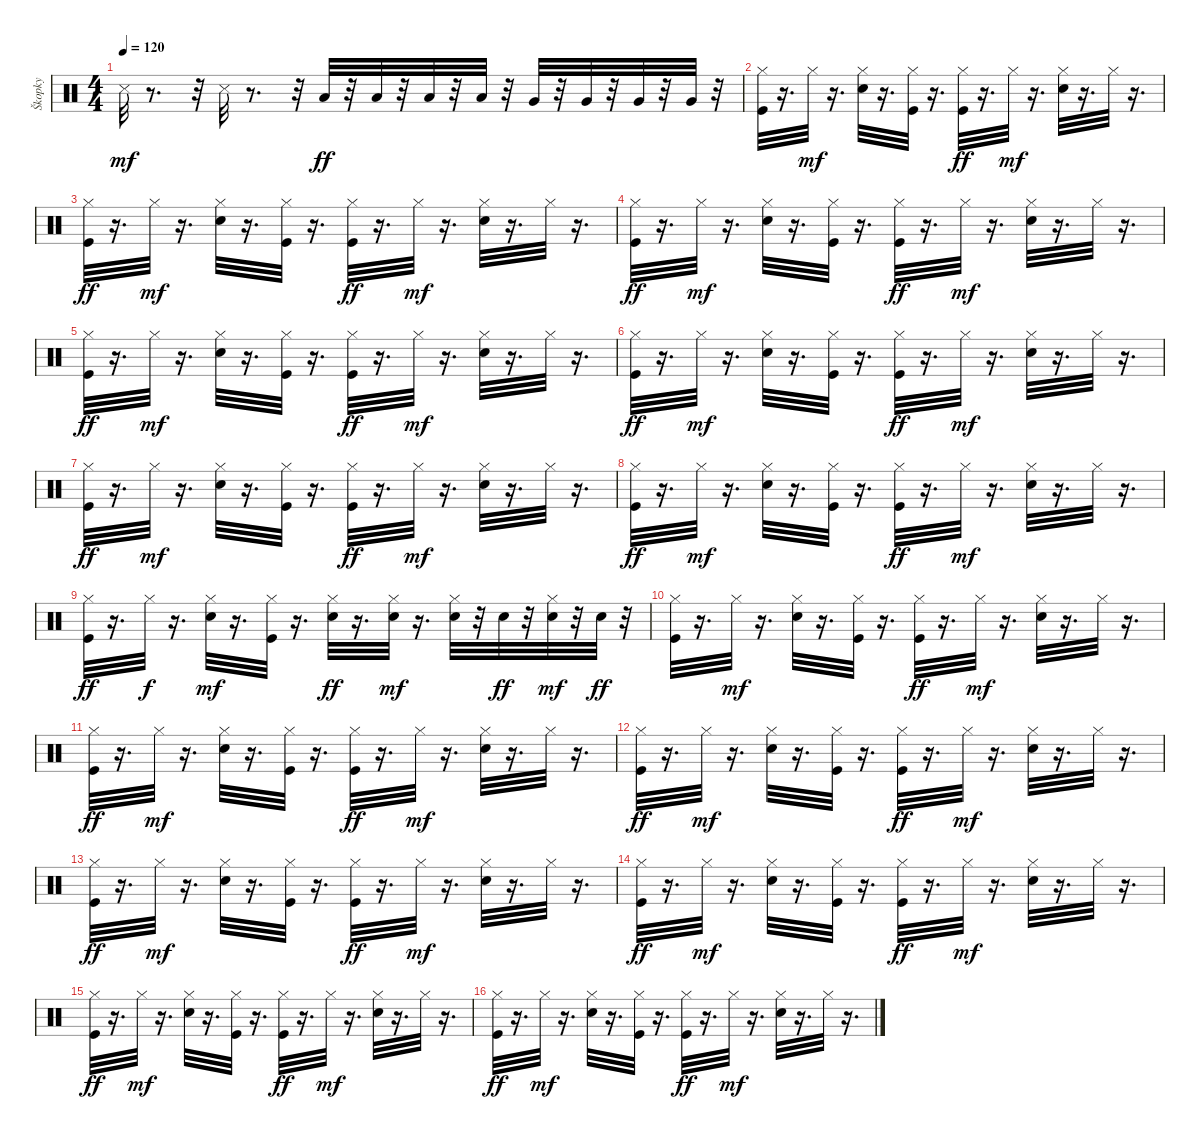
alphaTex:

\track ("Škopky" "Škopky") {instrument percussion}
\staff {score}
\articulation defaults
\ts (4 4)
\tempo 120
\clef neutral
\ks c "Snare (side stick) 3".32{dy mf}
r.8{d} r.32 "Snare (side stick) 3".32 r.8{d} r.32 "Low Tom (hit)".32{dy ff} r.32 "Low Tom (hit)".32 r.32 "Low Tom (hit)".32 r.32 "Low Tom (hit)".32 r.32 "Very Low Tom (hit)".32 r.32 "Very Low Tom (hit)".32 r.32 "Very Low Tom (hit)".32 r.32 "Very Low Tom (hit)".32 r.32 |
("Kick (hit)" "Hi-Hat (closed)").32 r.16{d} "Hi-Hat (closed)".32{dy mf} r.16{d} ("Snare (hit) 2" "Hi-Hat (closed)").32 r.16{d} ("Kick (hit)" "Hi-Hat (closed)").32 r.16{d} ("Kick (hit)" "Hi-Hat (closed)").32{dy ff} r.16{d} "Hi-Hat (closed)".32{dy mf} r.16{d} ("Snare (hit) 2" "Hi-Hat (closed)").32 r.16{d} "Hi-Hat (closed)".32 r.16{d} |
("Kick (hit)" "Hi-Hat (closed)").32{dy ff} r.16{d} "Hi-Hat (closed)".32{dy mf} r.16{d} ("Snare (hit) 2" "Hi-Hat (closed)").32 r.16{d} ("Kick (hit)" "Hi-Hat (closed)").32 r.16{d} ("Kick (hit)" "Hi-Hat (closed)").32{dy ff} r.16{d} "Hi-Hat (closed)".32{dy mf} r.16{d} ("Snare (hit) 2" "Hi-Hat (closed)").32 r.16{d} "Hi-Hat (closed)".32 r.16{d} |
("Kick (hit)" "Hi-Hat (closed)").32{dy ff} r.16{d} "Hi-Hat (closed)".32{dy mf} r.16{d} ("Snare (hit) 2" "Hi-Hat (closed)").32 r.16{d} ("Kick (hit)" "Hi-Hat (closed)").32 r.16{d} ("Kick (hit)" "Hi-Hat (closed)").32{dy ff} r.16{d} "Hi-Hat (closed)".32{dy mf} r.16{d} ("Snare (hit) 2" "Hi-Hat (closed)").32 r.16{d} "Hi-Hat (closed)".32 r.16{d} |
("Kick (hit)" "Hi-Hat (closed)").32{dy ff} r.16{d} "Hi-Hat (closed)".32{dy mf} r.16{d} ("Snare (hit) 2" "Hi-Hat (closed)").32 r.16{d} ("Kick (hit)" "Hi-Hat (closed)").32 r.16{d} ("Kick (hit)" "Hi-Hat (closed)").32{dy ff} r.16{d} "Hi-Hat (closed)".32{dy mf} r.16{d} ("Snare (hit) 2" "Hi-Hat (closed)").32 r.16{d} "Hi-Hat (closed)".32 r.16{d} |
("Kick (hit)" "Hi-Hat (closed)").32{dy ff} r.16{d} "Hi-Hat (closed)".32{dy mf} r.16{d} ("Snare (hit) 2" "Hi-Hat (closed)").32 r.16{d} ("Kick (hit)" "Hi-Hat (closed)").32 r.16{d} ("Kick (hit)" "Hi-Hat (closed)").32{dy ff} r.16{d} "Hi-Hat (closed)".32{dy mf} r.16{d} ("Snare (hit) 2" "Hi-Hat (closed)").32 r.16{d} "Hi-Hat (closed)".32 r.16{d} |
("Kick (hit)" "Hi-Hat (closed)").32{dy ff} r.16{d} "Hi-Hat (closed)".32{dy mf} r.16{d} ("Snare (hit) 2" "Hi-Hat (closed)").32 r.16{d} ("Kick (hit)" "Hi-Hat (closed)").32 r.16{d} ("Kick (hit)" "Hi-Hat (closed)").32{dy ff} r.16{d} "Hi-Hat (closed)".32{dy mf} r.16{d} ("Snare (hit) 2" "Hi-Hat (closed)").32 r.16{d} "Hi-Hat (closed)".32 r.16{d} |
("Kick (hit)" "Hi-Hat (closed)").32{dy ff} r.16{d} "Hi-Hat (closed)".32{dy mf} r.16{d} ("Snare (hit) 2" "Hi-Hat (closed)").32 r.16{d} ("Kick (hit)" "Hi-Hat (closed)").32 r.16{d} ("Kick (hit)" "Hi-Hat (closed)").32{dy ff} r.16{d} "Hi-Hat (closed)".32{dy mf} r.16{d} ("Snare (hit) 2" "Hi-Hat (closed)").32 r.16{d} "Hi-Hat (closed)".32 r.16{d} |
("Kick (hit)" "Hi-Hat (closed)").32{dy ff} r.16{d} "Hi-Hat (closed)".32{dy f} r.16{d} ("Snare (hit) 2" "Hi-Hat (closed)").32{dy mf} r.16{d} ("Kick (hit)" "Hi-Hat (closed)").32 r.16{d} ("Snare (hit) 2" "Hi-Hat (closed)").32{dy ff} r.16{d} ("Snare (hit) 2" "Hi-Hat (closed)").32{dy mf} r.16{d} ("Snare (hit) 2" "Hi-Hat (closed)").32 r.32 "Snare (hit) 2".32{dy ff} r.32 ("Snare (hit) 2" "Hi-Hat (closed)").32{dy mf} r.32 "Snare (hit) 2".32{dy ff} r.32 |
("Kick (hit)" "Hi-Hat (closed)").32 r.16{d} "Hi-Hat (closed)".32{dy mf} r.16{d} ("Snare (hit) 2" "Hi-Hat (closed)").32 r.16{d} ("Kick (hit)" "Hi-Hat (closed)").32 r.16{d} ("Kick (hit)" "Hi-Hat (closed)").32{dy ff} r.16{d} "Hi-Hat (closed)".32{dy mf} r.16{d} ("Snare (hit) 2" "Hi-Hat (closed)").32 r.16{d} "Hi-Hat (closed)".32 r.16{d} |
("Kick (hit)" "Hi-Hat (closed)").32{dy ff} r.16{d} "Hi-Hat (closed)".32{dy mf} r.16{d} ("Snare (hit) 2" "Hi-Hat (closed)").32 r.16{d} ("Kick (hit)" "Hi-Hat (closed)").32 r.16{d} ("Kick (hit)" "Hi-Hat (closed)").32{dy ff} r.16{d} "Hi-Hat (closed)".32{dy mf} r.16{d} ("Snare (hit) 2" "Hi-Hat (closed)").32 r.16{d} "Hi-Hat (closed)".32 r.16{d} |
("Kick (hit)" "Hi-Hat (closed)").32{dy ff} r.16{d} "Hi-Hat (closed)".32{dy mf} r.16{d} ("Snare (hit) 2" "Hi-Hat (closed)").32 r.16{d} ("Kick (hit)" "Hi-Hat (closed)").32 r.16{d} ("Kick (hit)" "Hi-Hat (closed)").32{dy ff} r.16{d} "Hi-Hat (closed)".32{dy mf} r.16{d} ("Snare (hit) 2" "Hi-Hat (closed)").32 r.16{d} "Hi-Hat (closed)".32 r.16{d} |
("Kick (hit)" "Hi-Hat (closed)").32{dy ff} r.16{d} "Hi-Hat (closed)".32{dy mf} r.16{d} ("Snare (hit) 2" "Hi-Hat (closed)").32 r.16{d} ("Kick (hit)" "Hi-Hat (closed)").32 r.16{d} ("Kick (hit)" "Hi-Hat (closed)").32{dy ff} r.16{d} "Hi-Hat (closed)".32{dy mf} r.16{d} ("Snare (hit) 2" "Hi-Hat (closed)").32 r.16{d} "Hi-Hat (closed)".32 r.16{d} |
("Kick (hit)" "Hi-Hat (closed)").32{dy ff} r.16{d} "Hi-Hat (closed)".32{dy mf} r.16{d} ("Snare (hit) 2" "Hi-Hat (closed)").32 r.16{d} ("Kick (hit)" "Hi-Hat (closed)").32 r.16{d} ("Kick (hit)" "Hi-Hat (closed)").32{dy ff} r.16{d} "Hi-Hat (closed)".32{dy mf} r.16{d} ("Snare (hit) 2" "Hi-Hat (closed)").32 r.16{d} "Hi-Hat (closed)".32 r.16{d} |
("Kick (hit)" "Hi-Hat (closed)").32{dy ff} r.16{d} "Hi-Hat (closed)".32{dy mf} r.16{d} ("Snare (hit) 2" "Hi-Hat (closed)").32 r.16{d} ("Kick (hit)" "Hi-Hat (closed)").32 r.16{d} ("Kick (hit)" "Hi-Hat (closed)").32{dy ff} r.16{d} "Hi-Hat (closed)".32{dy mf} r.16{d} ("Snare (hit) 2" "Hi-Hat (closed)").32 r.16{d} "Hi-Hat (closed)".32 r.16{d} |
("Kick (hit)" "Hi-Hat (closed)").32{dy ff} r.16{d} "Hi-Hat (closed)".32{dy mf} r.16{d} ("Snare (hit) 2" "Hi-Hat (closed)").32 r.16{d} ("Kick (hit)" "Hi-Hat (closed)").32 r.16{d} ("Kick (hit)" "Hi-Hat (closed)").32{dy ff} r.16{d} "Hi-Hat (closed)".32{dy mf} r.16{d} ("Snare (hit) 2" "Hi-Hat (closed)").32 r.16{d} "Hi-Hat (closed)".32 r.16{d}
